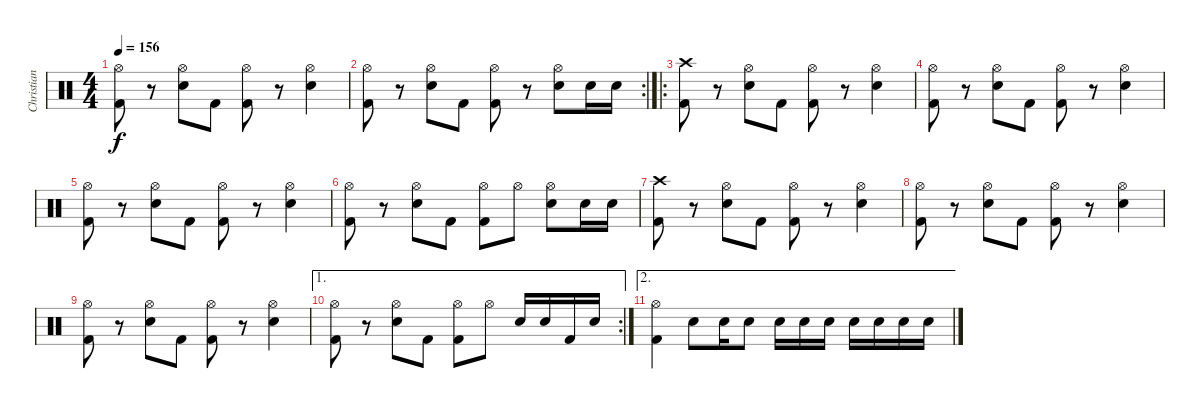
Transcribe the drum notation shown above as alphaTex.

\track ("Christian" "Christian") {instrument percussion}
\staff {score}
\articulation defaults
\ts (4 4)
\tempo 156
\clef neutral
\ks c
("Hi-Hat (open)" "Kick (hit) 2").8{dy f} r.8 ("Hi-Hat (open)" "Snare (hit) 2").8 "Kick (hit) 2".8 ("Hi-Hat (open)" "Kick (hit) 2").8 r.8 ("Hi-Hat (open)" "Snare (hit) 2").4 |
\rc 2
("Hi-Hat (open)" "Kick (hit) 2").8 r.8 ("Hi-Hat (open)" "Snare (hit) 2").8 "Kick (hit) 2".8 ("Hi-Hat (open)" "Kick (hit) 2").8 r.8 ("Hi-Hat (open)" "Snare (hit) 2").8 "Snare (hit) 2".16 "Snare (hit) 2".16 |
\ro
("Crash high (hit)" "Kick (hit) 2").8 r.8 ("Hi-Hat (open)" "Snare (hit) 2").8 "Kick (hit) 2".8 ("Hi-Hat (open)" "Kick (hit) 2").8 r.8 ("Hi-Hat (open)" "Snare (hit) 2").4 |
("Hi-Hat (open)" "Kick (hit) 2").8 r.8 ("Hi-Hat (open)" "Snare (hit) 2").8 "Kick (hit) 2".8 ("Hi-Hat (open)" "Kick (hit) 2").8 r.8 ("Hi-Hat (open)" "Snare (hit) 2").4 |
("Hi-Hat (open)" "Kick (hit) 2").8 r.8 ("Hi-Hat (open)" "Snare (hit) 2").8 "Kick (hit) 2".8 ("Hi-Hat (open)" "Kick (hit) 2").8 r.8 ("Hi-Hat (open)" "Snare (hit) 2").4 |
("Hi-Hat (open)" "Kick (hit) 2").8 r.8 ("Hi-Hat (open)" "Snare (hit) 2").8 "Kick (hit) 2".8 ("Hi-Hat (open)" "Kick (hit) 2").8 "Hi-Hat (open)".8 ("Hi-Hat (open)" "Snare (hit) 2").8 "Snare (hit) 2".16 "Snare (hit) 2".16 |
("Crash high (hit)" "Kick (hit) 2").8 r.8 ("Hi-Hat (open)" "Snare (hit) 2").8 "Kick (hit) 2".8 ("Hi-Hat (open)" "Kick (hit) 2").8 r.8 ("Hi-Hat (open)" "Snare (hit) 2").4 |
("Hi-Hat (open)" "Kick (hit) 2").8 r.8 ("Hi-Hat (open)" "Snare (hit) 2").8 "Kick (hit) 2".8 ("Hi-Hat (open)" "Kick (hit) 2").8 r.8 ("Hi-Hat (open)" "Snare (hit) 2").4 |
("Hi-Hat (open)" "Kick (hit) 2").8 r.8 ("Hi-Hat (open)" "Snare (hit) 2").8 "Kick (hit) 2".8 ("Hi-Hat (open)" "Kick (hit) 2").8 r.8 ("Hi-Hat (open)" "Snare (hit) 2").4 |
\ae 1
\rc 2
("Hi-Hat (open)" "Kick (hit) 2").8 r.8 ("Hi-Hat (open)" "Snare (hit) 2").8 "Kick (hit) 2".8 ("Hi-Hat (open)" "Kick (hit) 2").8 "Hi-Hat (open)".8 "Snare (hit) 2".16 "Snare (hit) 2".16 "Kick (hit) 2".16 "Snare (hit) 2".16 |
\ae 2
("Hi-Hat (open)" "Kick (hit) 2").4 "Snare (hit) 2".8 "Snare (hit) 2".16 "Snare (hit) 2".8 "Snare (hit) 2".16 "Snare (hit) 2".16 "Snare (hit) 2".16 "Snare (hit) 2".16 "Snare (hit) 2".16 "Snare (hit) 2".16 "Snare (hit) 2".16
